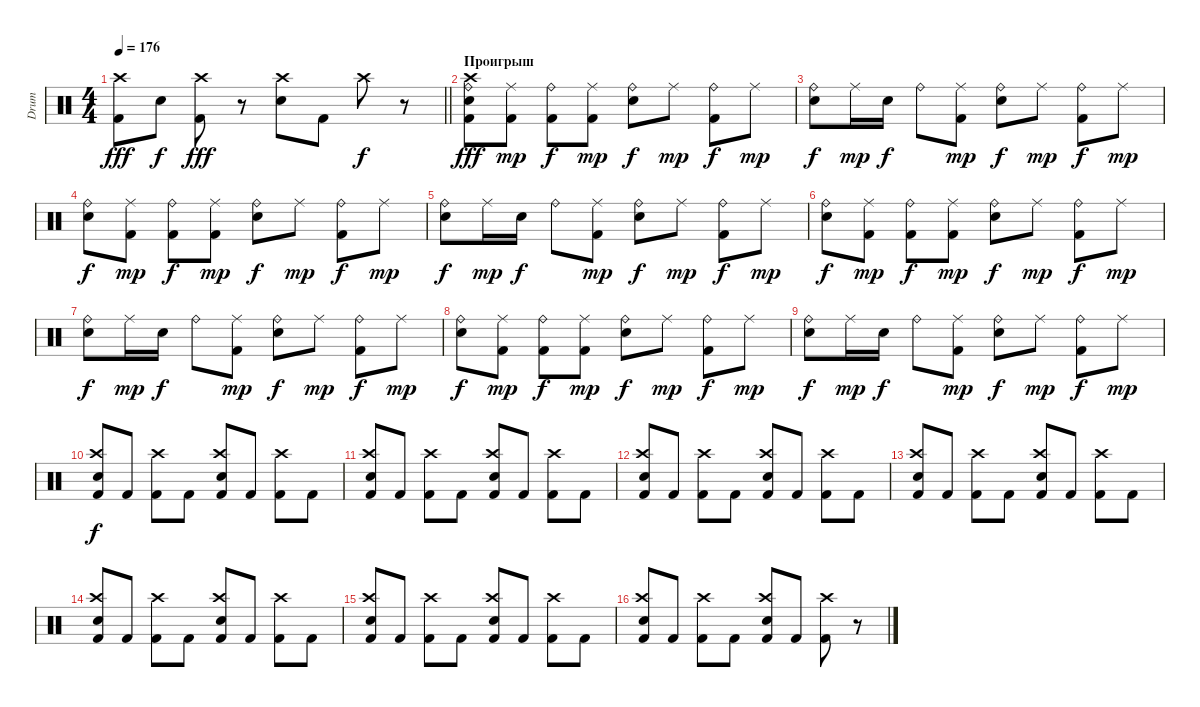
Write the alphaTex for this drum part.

\track ("Drum" "Drum") {instrument percussion}
\staff {score}
\articulation defaults
\ts (4 4)
\tempo 176
\clef neutral
\barLineRight lightlight
\ks c
("Kick (hit) 2" "Crash high (hit)").8{dy fff} "Electric Snare (hit)".8{dy f} ("Kick (hit) 2" "Crash high (hit)").8{dy fff} r.8 ("Snare (hit) 2" "Crash high (hit)").8 "Kick (hit) 2".8 "Crash high (hit)".8{dy f} r.8 |
\section ("" "Проигрыш")
("Crash high (hit)" "Kick (hit) 2" "Snare (hit) 2" "Ride (bell)").8{dy fff} ("Ride (middle)" "Kick (hit) 2").8{dy mp} ("Ride (bell)" "Kick (hit) 2").8{dy f} ("Ride (middle)" "Kick (hit) 2").8{dy mp} ("Snare (hit) 2" "Ride (bell)").8{dy f} "Ride (middle)".8{dy mp} ("Ride (bell)" "Kick (hit) 2").8{dy f} "Ride (middle)".8{dy mp} |
("Ride (bell)" "Electric Snare (hit)").8{dy f} "Ride (middle)".16{dy mp} "Electric Snare (hit)".16{dy f} "Ride (bell)".8 ("Ride (middle)" "Kick (hit) 2").8{dy mp} ("Ride (bell)" "Electric Snare (hit)").8{dy f} "Ride (middle)".8{dy mp} ("Ride (bell)" "Kick (hit) 2").8{dy f} "Ride (middle)".8{dy mp} |
("Snare (hit) 2" "Ride (bell)").8{dy f} ("Ride (middle)" "Kick (hit) 2").8{dy mp} ("Ride (bell)" "Kick (hit) 2").8{dy f} ("Ride (middle)" "Kick (hit) 2").8{dy mp} ("Snare (hit) 2" "Ride (bell)").8{dy f} "Ride (middle)".8{dy mp} ("Ride (bell)" "Kick (hit) 2").8{dy f} "Ride (middle)".8{dy mp} |
("Ride (bell)" "Electric Snare (hit)").8{dy f} "Ride (middle)".16{dy mp} "Electric Snare (hit)".16{dy f} "Ride (bell)".8 ("Ride (middle)" "Kick (hit) 2").8{dy mp} ("Ride (bell)" "Electric Snare (hit)").8{dy f} "Ride (middle)".8{dy mp} ("Ride (bell)" "Kick (hit) 2").8{dy f} "Ride (middle)".8{dy mp} |
("Snare (hit) 2" "Ride (bell)").8{dy f} ("Ride (middle)" "Kick (hit) 2").8{dy mp} ("Ride (bell)" "Kick (hit) 2").8{dy f} ("Ride (middle)" "Kick (hit) 2").8{dy mp} ("Snare (hit) 2" "Ride (bell)").8{dy f} "Ride (middle)".8{dy mp} ("Ride (bell)" "Kick (hit) 2").8{dy f} "Ride (middle)".8{dy mp} |
("Ride (bell)" "Electric Snare (hit)").8{dy f} "Ride (middle)".16{dy mp} "Electric Snare (hit)".16{dy f} "Ride (bell)".8 ("Ride (middle)" "Kick (hit) 2").8{dy mp} ("Ride (bell)" "Electric Snare (hit)").8{dy f} "Ride (middle)".8{dy mp} ("Ride (bell)" "Kick (hit) 2").8{dy f} "Ride (middle)".8{dy mp} |
("Snare (hit) 2" "Ride (bell)").8{dy f} ("Ride (middle)" "Kick (hit) 2").8{dy mp} ("Ride (bell)" "Kick (hit) 2").8{dy f} ("Ride (middle)" "Kick (hit) 2").8{dy mp} ("Snare (hit) 2" "Ride (bell)").8{dy f} "Ride (middle)".8{dy mp} ("Ride (bell)" "Kick (hit) 2").8{dy f} "Ride (middle)".8{dy mp} |
("Ride (bell)" "Electric Snare (hit)").8{dy f} "Ride (middle)".16{dy mp} "Electric Snare (hit)".16{dy f} "Ride (bell)".8 ("Ride (middle)" "Kick (hit) 2").8{dy mp} ("Ride (bell)" "Electric Snare (hit)").8{dy f} "Ride (middle)".8{dy mp} ("Ride (bell)" "Kick (hit) 2").8{dy f} "Ride (middle)".8{dy mp} |
("Crash high (hit)" "Snare (hit) 2" "Kick (hit) 2").8{dy f} "Kick (hit) 2".8 ("Crash high (hit)" "Kick (hit) 2").8 "Kick (hit) 2".8 ("Snare (hit) 2" "Crash high (hit)" "Kick (hit) 2").8 "Kick (hit) 2".8 ("Kick (hit) 2" "Crash high (hit)").8 "Kick (hit) 2".8 |
("Snare (hit) 2" "Kick (hit) 2" "Crash high (hit)").8 "Kick (hit) 2".8 ("Crash high (hit)" "Kick (hit) 2").8 "Kick (hit) 2".8 ("Snare (hit) 2" "Crash high (hit)" "Kick (hit) 2").8 "Kick (hit) 2".8 ("Crash high (hit)" "Kick (hit) 2").8 "Kick (hit) 2".8 |
("Crash high (hit)" "Snare (hit) 2" "Kick (hit) 2").8 "Kick (hit) 2".8 ("Crash high (hit)" "Kick (hit) 2").8 "Kick (hit) 2".8 ("Snare (hit) 2" "Crash high (hit)" "Kick (hit) 2").8 "Kick (hit) 2".8 ("Kick (hit) 2" "Crash high (hit)").8 "Kick (hit) 2".8 |
("Snare (hit) 2" "Kick (hit) 2" "Crash high (hit)").8 "Kick (hit) 2".8 ("Crash high (hit)" "Kick (hit) 2").8 "Kick (hit) 2".8 ("Snare (hit) 2" "Crash high (hit)" "Kick (hit) 2").8 "Kick (hit) 2".8 ("Crash high (hit)" "Kick (hit) 2").8 "Kick (hit) 2".8 |
("Crash high (hit)" "Snare (hit) 2" "Kick (hit) 2").8 "Kick (hit) 2".8 ("Crash high (hit)" "Kick (hit) 2").8 "Kick (hit) 2".8 ("Snare (hit) 2" "Crash high (hit)" "Kick (hit) 2").8 "Kick (hit) 2".8 ("Kick (hit) 2" "Crash high (hit)").8 "Kick (hit) 2".8 |
("Snare (hit) 2" "Kick (hit) 2" "Crash high (hit)").8 "Kick (hit) 2".8 ("Crash high (hit)" "Kick (hit) 2").8 "Kick (hit) 2".8 ("Snare (hit) 2" "Crash high (hit)" "Kick (hit) 2").8 "Kick (hit) 2".8 ("Crash high (hit)" "Kick (hit) 2").8 "Kick (hit) 2".8 |
("Crash high (hit)" "Snare (hit) 2" "Kick (hit) 2").8 "Kick (hit) 2".8 ("Crash high (hit)" "Kick (hit) 2").8 "Kick (hit) 2".8 ("Snare (hit) 2" "Crash high (hit)" "Kick (hit) 2").8 "Kick (hit) 2".8 ("Crash high (hit)" "Kick (hit) 2").8 r.8
